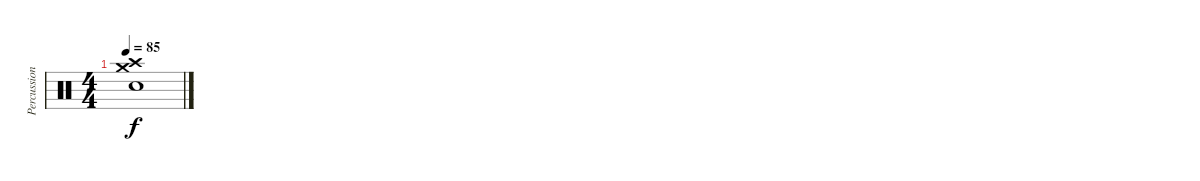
\track ("Percussion" "Percussion") {instrument percussion}
\staff {score}
\articulation defaults
\ts (4 4)
\tempo 85
\clef neutral
\ks c
("Crash high (hit)" "Crash medium (hit)" "Electric Snare (hit)").1{dy f}
